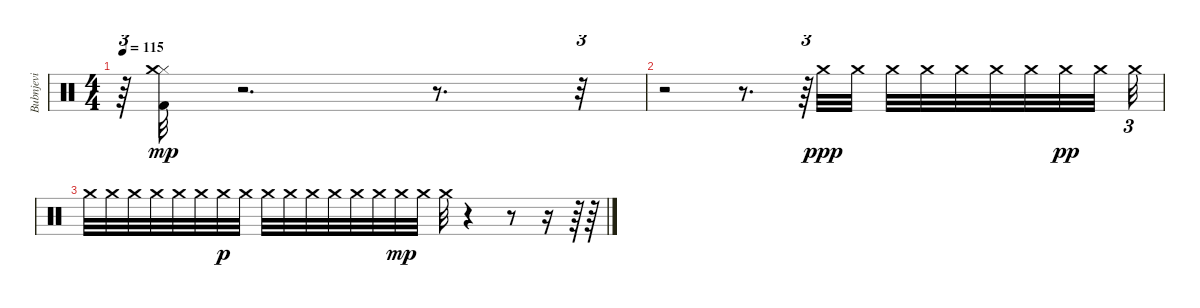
\track ("Bubnjevi" "Bubnjevi") {instrument percussion}
\staff {score}
\articulation defaults
\ts (4 4)
\tempo 115
\clef neutral
\ks c
r.64{tu (3 2) dy p} ("Kick (hit) 2" "Hi-Hat (closed)" "Crash medium (hit)").32{dy mp} r.2{d} r.8{d} r.32{tu (3 2)} |
r.2 r.8{d} r.64{tu (3 2)} "Crash medium (hit)".32{dy ppp} "Crash medium (hit)".32 "Crash medium (hit)".32 "Crash medium (hit)".32 "Crash medium (hit)".32 "Crash medium (hit)".32 "Crash medium (hit)".32 "Crash medium (hit)".32{dy pp} "Crash medium (hit)".32 "Crash medium (hit)".32{tu (3 2)} |
"Crash medium (hit)".32 "Crash medium (hit)".32 "Crash medium (hit)".32 "Crash medium (hit)".32 "Crash medium (hit)".32 "Crash medium (hit)".32 "Crash medium (hit)".32{dy p} "Crash medium (hit)".32 "Crash medium (hit)".32 "Crash medium (hit)".32 "Crash medium (hit)".32 "Crash medium (hit)".32 "Crash medium (hit)".32 "Crash medium (hit)".32 "Crash medium (hit)".32{dy mp} "Crash medium (hit)".32 "Crash medium (hit)".32 r.4 r.8 r.16 r.64 r.64
